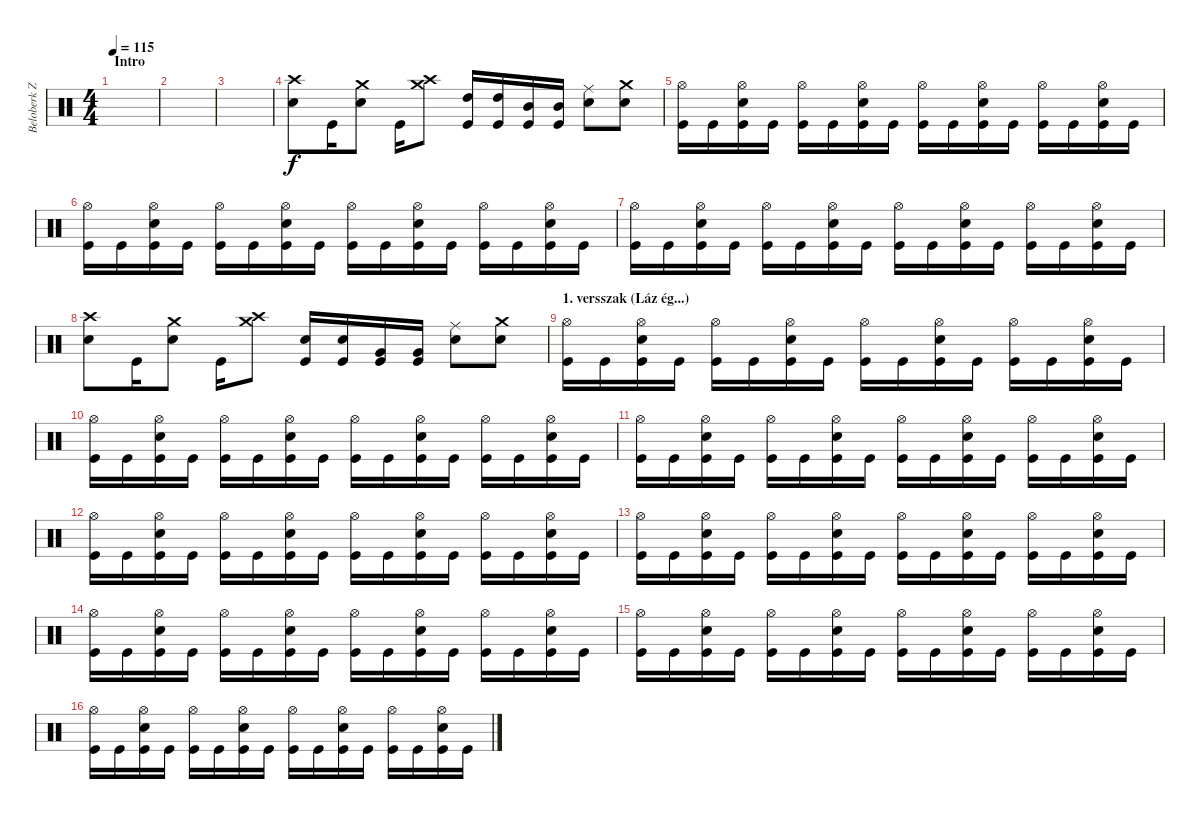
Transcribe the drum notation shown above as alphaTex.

\track ("Beloberk Zsolt /dob/" "Beloberk Z") {instrument percussion}
\staff {score}
\articulation defaults
\ts (4 4)
\section ("" "Intro")
\tempo 115
\clef neutral
\ks c
|
|
|
("Crash high (hit)" "Snare (hit) 2").8 "Kick (hit)".16 ("Crash medium (hit)" "Snare (hit) 2").8 "Kick (hit)".16 ("Crash medium (hit)" "Crash high (hit)").8 ("High Tom (hit)" "Kick (hit)").16 ("High Tom (hit)" "Kick (hit)").16 ("Mid Tom (hit)" "Kick (hit)").16 ("Mid Tom (hit)" "Kick (hit)").16 ("Ride (middle)" "Snare (hit) 2").8 ("Crash medium (hit)" "Snare (hit) 2").8 |
("Hi-Hat (open)" "Kick (hit)").16 "Kick (hit)".16 ("Hi-Hat (open)" "Electric Snare (hit)" "Kick (hit)").16 "Kick (hit)".16 ("Hi-Hat (open)" "Kick (hit)").16 "Kick (hit)".16 ("Hi-Hat (open)" "Electric Snare (hit)" "Kick (hit)").16 "Kick (hit)".16 ("Hi-Hat (open)" "Kick (hit)").16 "Kick (hit)".16 ("Hi-Hat (open)" "Electric Snare (hit)" "Kick (hit)").16 "Kick (hit)".16 ("Hi-Hat (open)" "Kick (hit)").16 "Kick (hit)".16 ("Hi-Hat (open)" "Electric Snare (hit)" "Kick (hit)").16 "Kick (hit)".16 |
("Hi-Hat (open)" "Kick (hit)").16 "Kick (hit)".16 ("Hi-Hat (open)" "Electric Snare (hit)" "Kick (hit)").16 "Kick (hit)".16 ("Hi-Hat (open)" "Kick (hit)").16 "Kick (hit)".16 ("Hi-Hat (open)" "Electric Snare (hit)" "Kick (hit)").16 "Kick (hit)".16 ("Hi-Hat (open)" "Kick (hit)").16 "Kick (hit)".16 ("Hi-Hat (open)" "Electric Snare (hit)" "Kick (hit)").16 "Kick (hit)".16 ("Hi-Hat (open)" "Kick (hit)").16 "Kick (hit)".16 ("Hi-Hat (open)" "Electric Snare (hit)" "Kick (hit)").16 "Kick (hit)".16 |
("Hi-Hat (open)" "Kick (hit)").16 "Kick (hit)".16 ("Hi-Hat (open)" "Electric Snare (hit)" "Kick (hit)").16 "Kick (hit)".16 ("Hi-Hat (open)" "Kick (hit)").16 "Kick (hit)".16 ("Hi-Hat (open)" "Electric Snare (hit)" "Kick (hit)").16 "Kick (hit)".16 ("Hi-Hat (open)" "Kick (hit)").16 "Kick (hit)".16 ("Hi-Hat (open)" "Electric Snare (hit)" "Kick (hit)").16 "Kick (hit)".16 ("Hi-Hat (open)" "Kick (hit)").16 "Kick (hit)".16 ("Hi-Hat (open)" "Electric Snare (hit)" "Kick (hit)").16 "Kick (hit)".16 |
("Crash high (hit)" "Snare (hit) 2").8 "Kick (hit)".16 ("Crash medium (hit)" "Snare (hit) 2").8 "Kick (hit)".16 ("Crash medium (hit)" "Crash high (hit)").8 ("Snare (hit) 2" "Kick (hit)").16 ("Snare (hit) 2" "Kick (hit)").16 ("Very Low Tom (hit)" "Kick (hit)").16 ("Very Low Tom (hit)" "Kick (hit)").16 ("Ride (middle)" "Snare (hit) 2").8 ("Crash medium (hit)" "Snare (hit) 2").8 |
\section ("" "1. versszak (Láz ég...)")
("Hi-Hat (open)" "Kick (hit)").16 "Kick (hit)".16 ("Hi-Hat (open)" "Electric Snare (hit)" "Kick (hit)").16 "Kick (hit)".16 ("Hi-Hat (open)" "Kick (hit)").16 "Kick (hit)".16 ("Hi-Hat (open)" "Electric Snare (hit)" "Kick (hit)").16 "Kick (hit)".16 ("Hi-Hat (open)" "Kick (hit)").16 "Kick (hit)".16 ("Hi-Hat (open)" "Electric Snare (hit)" "Kick (hit)").16 "Kick (hit)".16 ("Hi-Hat (open)" "Kick (hit)").16 "Kick (hit)".16 ("Hi-Hat (open)" "Electric Snare (hit)" "Kick (hit)").16 "Kick (hit)".16 |
("Hi-Hat (open)" "Kick (hit)").16 "Kick (hit)".16 ("Hi-Hat (open)" "Electric Snare (hit)" "Kick (hit)").16 "Kick (hit)".16 ("Hi-Hat (open)" "Kick (hit)").16 "Kick (hit)".16 ("Hi-Hat (open)" "Electric Snare (hit)" "Kick (hit)").16 "Kick (hit)".16 ("Hi-Hat (open)" "Kick (hit)").16 "Kick (hit)".16 ("Hi-Hat (open)" "Electric Snare (hit)" "Kick (hit)").16 "Kick (hit)".16 ("Hi-Hat (open)" "Kick (hit)").16 "Kick (hit)".16 ("Hi-Hat (open)" "Electric Snare (hit)" "Kick (hit)").16 "Kick (hit)".16 |
("Hi-Hat (open)" "Kick (hit)").16 "Kick (hit)".16 ("Hi-Hat (open)" "Electric Snare (hit)" "Kick (hit)").16 "Kick (hit)".16 ("Hi-Hat (open)" "Kick (hit)").16 "Kick (hit)".16 ("Hi-Hat (open)" "Electric Snare (hit)" "Kick (hit)").16 "Kick (hit)".16 ("Hi-Hat (open)" "Kick (hit)").16 "Kick (hit)".16 ("Hi-Hat (open)" "Electric Snare (hit)" "Kick (hit)").16 "Kick (hit)".16 ("Hi-Hat (open)" "Kick (hit)").16 "Kick (hit)".16 ("Hi-Hat (open)" "Electric Snare (hit)" "Kick (hit)").16 "Kick (hit)".16 |
("Hi-Hat (open)" "Kick (hit)").16 "Kick (hit)".16 ("Hi-Hat (open)" "Electric Snare (hit)" "Kick (hit)").16 "Kick (hit)".16 ("Hi-Hat (open)" "Kick (hit)").16 "Kick (hit)".16 ("Hi-Hat (open)" "Electric Snare (hit)" "Kick (hit)").16 "Kick (hit)".16 ("Hi-Hat (open)" "Kick (hit)").16 "Kick (hit)".16 ("Hi-Hat (open)" "Electric Snare (hit)" "Kick (hit)").16 "Kick (hit)".16 ("Hi-Hat (open)" "Kick (hit)").16 "Kick (hit)".16 ("Hi-Hat (open)" "Electric Snare (hit)" "Kick (hit)").16 "Kick (hit)".16 |
("Hi-Hat (open)" "Kick (hit)").16 "Kick (hit)".16 ("Hi-Hat (open)" "Electric Snare (hit)" "Kick (hit)").16 "Kick (hit)".16 ("Hi-Hat (open)" "Kick (hit)").16 "Kick (hit)".16 ("Hi-Hat (open)" "Electric Snare (hit)" "Kick (hit)").16 "Kick (hit)".16 ("Hi-Hat (open)" "Kick (hit)").16 "Kick (hit)".16 ("Hi-Hat (open)" "Electric Snare (hit)" "Kick (hit)").16 "Kick (hit)".16 ("Hi-Hat (open)" "Kick (hit)").16 "Kick (hit)".16 ("Hi-Hat (open)" "Electric Snare (hit)" "Kick (hit)").16 "Kick (hit)".16 |
("Hi-Hat (open)" "Kick (hit)").16 "Kick (hit)".16 ("Hi-Hat (open)" "Electric Snare (hit)" "Kick (hit)").16 "Kick (hit)".16 ("Hi-Hat (open)" "Kick (hit)").16 "Kick (hit)".16 ("Hi-Hat (open)" "Electric Snare (hit)" "Kick (hit)").16 "Kick (hit)".16 ("Hi-Hat (open)" "Kick (hit)").16 "Kick (hit)".16 ("Hi-Hat (open)" "Electric Snare (hit)" "Kick (hit)").16 "Kick (hit)".16 ("Hi-Hat (open)" "Kick (hit)").16 "Kick (hit)".16 ("Hi-Hat (open)" "Electric Snare (hit)" "Kick (hit)").16 "Kick (hit)".16 |
("Hi-Hat (open)" "Kick (hit)").16 "Kick (hit)".16 ("Hi-Hat (open)" "Electric Snare (hit)" "Kick (hit)").16 "Kick (hit)".16 ("Hi-Hat (open)" "Kick (hit)").16 "Kick (hit)".16 ("Hi-Hat (open)" "Electric Snare (hit)" "Kick (hit)").16 "Kick (hit)".16 ("Hi-Hat (open)" "Kick (hit)").16 "Kick (hit)".16 ("Hi-Hat (open)" "Electric Snare (hit)" "Kick (hit)").16 "Kick (hit)".16 ("Hi-Hat (open)" "Kick (hit)").16 "Kick (hit)".16 ("Hi-Hat (open)" "Electric Snare (hit)" "Kick (hit)").16 "Kick (hit)".16 |
("Hi-Hat (open)" "Kick (hit)").16 "Kick (hit)".16 ("Hi-Hat (open)" "Electric Snare (hit)" "Kick (hit)").16 "Kick (hit)".16 ("Hi-Hat (open)" "Kick (hit)").16 "Kick (hit)".16 ("Hi-Hat (open)" "Electric Snare (hit)" "Kick (hit)").16 "Kick (hit)".16 ("Hi-Hat (open)" "Kick (hit)").16 "Kick (hit)".16 ("Hi-Hat (open)" "Electric Snare (hit)" "Kick (hit)").16 "Kick (hit)".16 ("Hi-Hat (open)" "Kick (hit)").16 "Kick (hit)".16 ("Hi-Hat (open)" "Electric Snare (hit)" "Kick (hit)").16 "Kick (hit)".16
